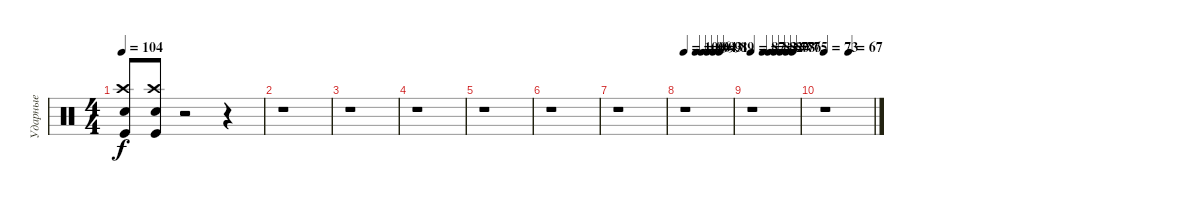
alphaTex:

\track ("Ударные" "Ударные") {instrument percussion}
\staff {score}
\articulation defaults
\ts (4 4)
\tempo 104
\clef neutral
\ks c
("Snare (hit) 2" "Crash high (hit)" "Kick (hit)").8{dy f} ("Snare (hit) 2" "Crash high (hit)" "Kick (hit)").8 r.2 r.4 |
r.1 |
r.1 |
r.1 |
r.1 |
r.1 |
r.1 |
\tempo 100
\tempo (96 0.25)
\tempo (94 0.375)
\tempo (93 0.5)
\tempo (91 0.625)
\tempo (89 0.75)
r.1 |
\tempo 87
\tempo (83 0.25)
\tempo (82 0.375)
\tempo (80 0.5)
\tempo (78 0.625)
\tempo (76 0.75)
\tempo (75 0.875)
r.1 |
\tempo 73
\tempo (67 0.5)
r.1
